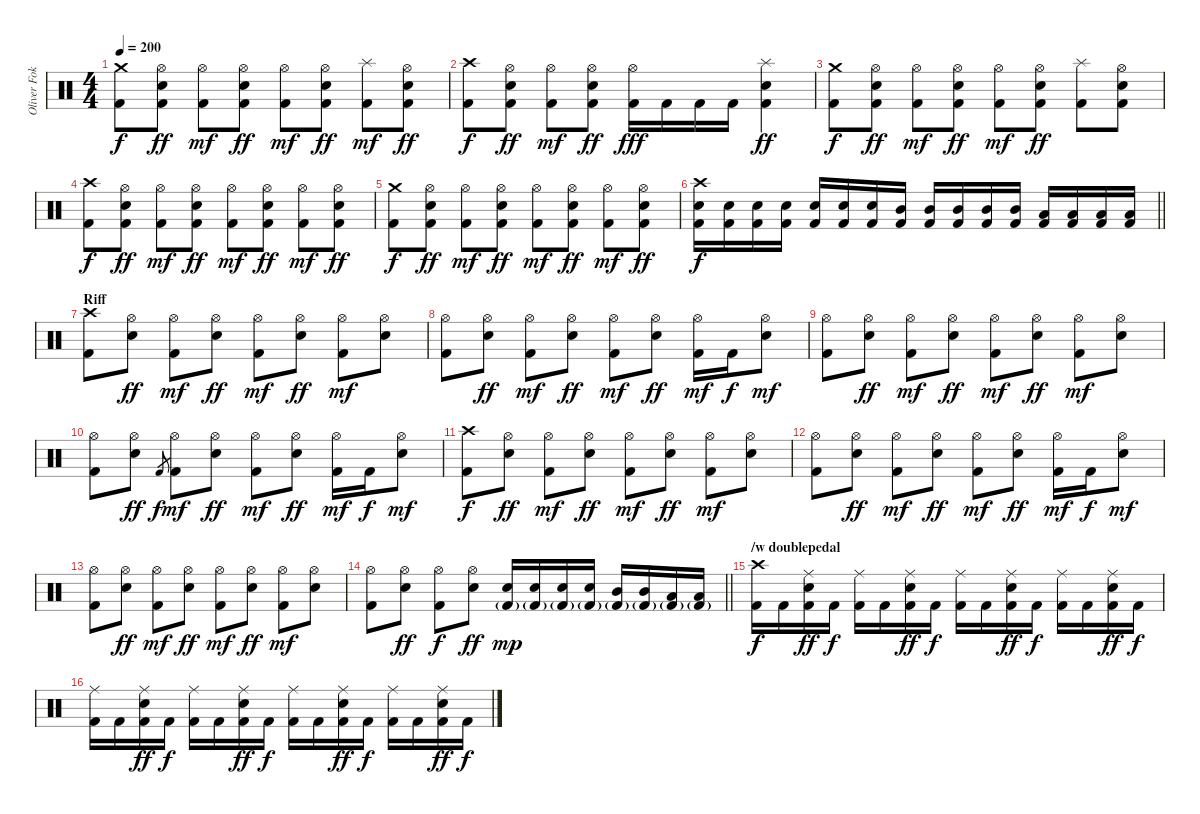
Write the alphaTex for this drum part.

\track ("Oliver Fokin" "Oliver Fok") {instrument percussion}
\staff {score}
\articulation defaults
\ts (4 4)
\tempo 200
\clef neutral
\ks c
("Crash medium (hit)" "Kick (hit) 2").8{dy f} ("Hi-Hat (open)" "Electric Snare (hit)" "Kick (hit) 2").8{dy ff} ("Hi-Hat (open)" "Kick (hit) 2").8{dy mf} ("Hi-Hat (open)" "Electric Snare (hit)" "Kick (hit) 2").8{dy ff} ("Hi-Hat (open)" "Kick (hit) 2").8{dy mf} ("Hi-Hat (open)" "Electric Snare (hit)" "Kick (hit) 2").8{dy ff} ("Splash (hit)" "Kick (hit) 2").8{dy mf} ("Hi-Hat (open)" "Electric Snare (hit)" "Kick (hit) 2").8{dy ff} |
("Crash high (hit)" "Kick (hit) 2").8{dy f} ("Hi-Hat (open)" "Electric Snare (hit)" "Kick (hit) 2").8{dy ff} ("Hi-Hat (open)" "Kick (hit) 2").8{dy mf} ("Hi-Hat (open)" "Electric Snare (hit)" "Kick (hit) 2").8{dy ff} ("Hi-Hat (open)" "Kick (hit) 2").16{dy fff} "Kick (hit) 2".16 "Kick (hit) 2".16 "Kick (hit) 2".16 ("Splash (hit)" "Electric Snare (hit)" "Kick (hit) 2").4{dy ff} |
("Crash medium (hit)" "Kick (hit) 2").8{dy f} ("Hi-Hat (open)" "Electric Snare (hit)" "Kick (hit) 2").8{dy ff} ("Hi-Hat (open)" "Kick (hit) 2").8{dy mf} ("Hi-Hat (open)" "Electric Snare (hit)" "Kick (hit) 2").8{dy ff} ("Hi-Hat (open)" "Kick (hit) 2").8{dy mf} ("Hi-Hat (open)" "Electric Snare (hit)" "Kick (hit) 2").8{dy ff} ("Splash (hit)" "Kick (hit) 2").8 ("Hi-Hat (open)" "Electric Snare (hit)" "Kick (hit) 2").8 |
("Crash high (hit)" "Kick (hit) 2").8{dy f} ("Hi-Hat (open)" "Electric Snare (hit)" "Kick (hit) 2").8{dy ff} ("Hi-Hat (open)" "Kick (hit) 2").8{dy mf} ("Hi-Hat (open)" "Electric Snare (hit)" "Kick (hit) 2").8{dy ff} ("Hi-Hat (open)" "Kick (hit) 2").8{dy mf} ("Hi-Hat (open)" "Electric Snare (hit)" "Kick (hit) 2").8{dy ff} ("Hi-Hat (open)" "Kick (hit) 2").8{dy mf} ("Hi-Hat (open)" "Electric Snare (hit)" "Kick (hit) 2").8{dy ff} |
("Crash medium (hit)" "Kick (hit) 2").8{dy f} ("Hi-Hat (open)" "Electric Snare (hit)" "Kick (hit) 2").8{dy ff} ("Hi-Hat (open)" "Kick (hit) 2").8{dy mf} ("Hi-Hat (open)" "Electric Snare (hit)" "Kick (hit) 2").8{dy ff} ("Hi-Hat (open)" "Kick (hit) 2").8{dy mf} ("Hi-Hat (open)" "Electric Snare (hit)" "Kick (hit) 2").8{dy ff} ("Hi-Hat (open)" "Kick (hit) 2").8{dy mf} ("Hi-Hat (open)" "Electric Snare (hit)" "Kick (hit) 2").8{dy ff} |
\barLineRight lightlight
("Crash high (hit)" "Electric Snare (hit)" "Kick (hit) 2").16{dy f} ("Electric Snare (hit)" "Kick (hit) 2").16 ("Electric Snare (hit)" "Kick (hit) 2").16 ("Electric Snare (hit)" "Kick (hit) 2").16 ("Electric Snare (hit)" "Kick (hit) 2").16 ("Electric Snare (hit)" "Kick (hit) 2").16 ("Electric Snare (hit)" "Kick (hit) 2").16 ("Mid Tom (hit)" "Kick (hit) 2").16 ("Mid Tom (hit)" "Kick (hit) 2").16 ("Mid Tom (hit)" "Kick (hit) 2").16 ("Mid Tom (hit)" "Kick (hit) 2").16 ("Mid Tom (hit)" "Kick (hit) 2").16 ("Low Tom (hit)" "Kick (hit) 2").16 ("Low Tom (hit)" "Kick (hit) 2").16 ("Low Tom (hit)" "Kick (hit) 2").16 ("Low Tom (hit)" "Kick (hit) 2").16 |
\section ("" "Riff")
("Crash high (hit)" "Kick (hit) 2").8 ("Hi-Hat (open)" "Electric Snare (hit)").8{dy ff} ("Hi-Hat (open)" "Kick (hit) 2").8{dy mf} ("Hi-Hat (open)" "Electric Snare (hit)").8{dy ff} ("Hi-Hat (open)" "Kick (hit) 2").8{dy mf} ("Hi-Hat (open)" "Electric Snare (hit)").8{dy ff} ("Hi-Hat (open)" "Kick (hit) 2").8{dy mf} ("Hi-Hat (open)" "Electric Snare (hit)").8 |
("Hi-Hat (open)" "Kick (hit) 2").8 ("Hi-Hat (open)" "Electric Snare (hit)").8{dy ff} ("Hi-Hat (open)" "Kick (hit) 2").8{dy mf} ("Hi-Hat (open)" "Electric Snare (hit)").8{dy ff} ("Hi-Hat (open)" "Kick (hit) 2").8{dy mf} ("Hi-Hat (open)" "Electric Snare (hit)").8{dy ff} ("Hi-Hat (open)" "Kick (hit) 2").16{dy mf} "Kick (hit) 2".16{dy f} ("Hi-Hat (open)" "Electric Snare (hit)").8{dy mf} |
("Hi-Hat (open)" "Kick (hit) 2").8 ("Hi-Hat (open)" "Electric Snare (hit)").8{dy ff} ("Hi-Hat (open)" "Kick (hit) 2").8{dy mf} ("Hi-Hat (open)" "Electric Snare (hit)").8{dy ff} ("Hi-Hat (open)" "Kick (hit) 2").8{dy mf} ("Hi-Hat (open)" "Electric Snare (hit)").8{dy ff} ("Hi-Hat (open)" "Kick (hit) 2").8{dy mf} ("Hi-Hat (open)" "Electric Snare (hit)").8 |
("Hi-Hat (open)" "Kick (hit) 2").8 ("Hi-Hat (open)" "Electric Snare (hit)").8{dy ff} "Kick (hit) 2".8{gr dy f} ("Hi-Hat (open)" "Kick (hit) 2").8{dy mf} ("Hi-Hat (open)" "Electric Snare (hit)").8{dy ff} ("Hi-Hat (open)" "Kick (hit) 2").8{dy mf} ("Hi-Hat (open)" "Electric Snare (hit)").8{dy ff} ("Hi-Hat (open)" "Kick (hit) 2").16{dy mf} "Kick (hit) 2".16{dy f} ("Hi-Hat (open)" "Electric Snare (hit)").8{dy mf} |
("Crash high (hit)" "Kick (hit) 2").8{dy f} ("Hi-Hat (open)" "Electric Snare (hit)").8{dy ff} ("Hi-Hat (open)" "Kick (hit) 2").8{dy mf} ("Hi-Hat (open)" "Electric Snare (hit)").8{dy ff} ("Hi-Hat (open)" "Kick (hit) 2").8{dy mf} ("Hi-Hat (open)" "Electric Snare (hit)").8{dy ff} ("Hi-Hat (open)" "Kick (hit) 2").8{dy mf} ("Hi-Hat (open)" "Electric Snare (hit)").8 |
("Hi-Hat (open)" "Kick (hit) 2").8 ("Hi-Hat (open)" "Electric Snare (hit)").8{dy ff} ("Hi-Hat (open)" "Kick (hit) 2").8{dy mf} ("Hi-Hat (open)" "Electric Snare (hit)").8{dy ff} ("Hi-Hat (open)" "Kick (hit) 2").8{dy mf} ("Hi-Hat (open)" "Electric Snare (hit)").8{dy ff} ("Hi-Hat (open)" "Kick (hit) 2").16{dy mf} "Kick (hit) 2".16{dy f} ("Hi-Hat (open)" "Electric Snare (hit)").8{dy mf} |
("Hi-Hat (open)" "Kick (hit) 2").8 ("Hi-Hat (open)" "Electric Snare (hit)").8{dy ff} ("Hi-Hat (open)" "Kick (hit) 2").8{dy mf} ("Hi-Hat (open)" "Electric Snare (hit)").8{dy ff} ("Hi-Hat (open)" "Kick (hit) 2").8{dy mf} ("Hi-Hat (open)" "Electric Snare (hit)").8{dy ff} ("Hi-Hat (open)" "Kick (hit) 2").8{dy mf} ("Hi-Hat (open)" "Electric Snare (hit)").8 |
\barLineRight lightlight
("Hi-Hat (open)" "Kick (hit) 2").8 ("Hi-Hat (open)" "Electric Snare (hit)").8{dy ff} ("Hi-Hat (open)" "Kick (hit) 2").8{dy f} ("Hi-Hat (open)" "Electric Snare (hit)").8{dy ff} ("Electric Snare (hit)" "Kick (hit) 2"{g}).16{dy mp} ("Electric Snare (hit)" "Kick (hit) 2"{g}).16 ("Electric Snare (hit)" "Kick (hit) 2"{g}).16 ("Electric Snare (hit)" "Kick (hit) 2"{g}).16 ("Mid Tom (hit)" "Kick (hit) 2"{g}).16 ("Mid Tom (hit)" "Kick (hit) 2"{g}).16 ("Low Tom (hit)" "Kick (hit) 2"{g}).16 ("Low Tom (hit)" "Kick (hit) 2"{g}).16 |
\section ("" "/w doublepedal")
("Crash high (hit)" "Kick (hit) 2").16{dy f} "Kick (hit) 2".16 ("Ride (middle)" "Electric Snare (hit)" "Kick (hit) 2").16{dy ff} "Kick (hit) 2".16{dy f} ("Ride (middle)" "Kick (hit) 2").16 "Kick (hit) 2".16 ("Ride (middle)" "Electric Snare (hit)" "Kick (hit) 2").16{dy ff} "Kick (hit) 2".16{dy f} ("Ride (middle)" "Kick (hit) 2").16 "Kick (hit) 2".16 ("Ride (middle)" "Electric Snare (hit)" "Kick (hit) 2").16{dy ff} "Kick (hit) 2".16{dy f} ("Ride (middle)" "Kick (hit) 2").16 "Kick (hit) 2".16 ("Ride (middle)" "Electric Snare (hit)" "Kick (hit) 2").16{dy ff} "Kick (hit) 2".16{dy f} |
("Ride (middle)" "Kick (hit) 2").16 "Kick (hit) 2".16 ("Ride (middle)" "Electric Snare (hit)" "Kick (hit) 2").16{dy ff} "Kick (hit) 2".16{dy f} ("Ride (middle)" "Kick (hit) 2").16 "Kick (hit) 2".16 ("Ride (middle)" "Electric Snare (hit)" "Kick (hit) 2").16{dy ff} "Kick (hit) 2".16{dy f} ("Ride (middle)" "Kick (hit) 2").16 "Kick (hit) 2".16 ("Ride (middle)" "Electric Snare (hit)" "Kick (hit) 2").16{dy ff} "Kick (hit) 2".16{dy f} ("Ride (middle)" "Kick (hit) 2").16 "Kick (hit) 2".16 ("Ride (middle)" "Electric Snare (hit)" "Kick (hit) 2").16{dy ff} "Kick (hit) 2".16{dy f}
